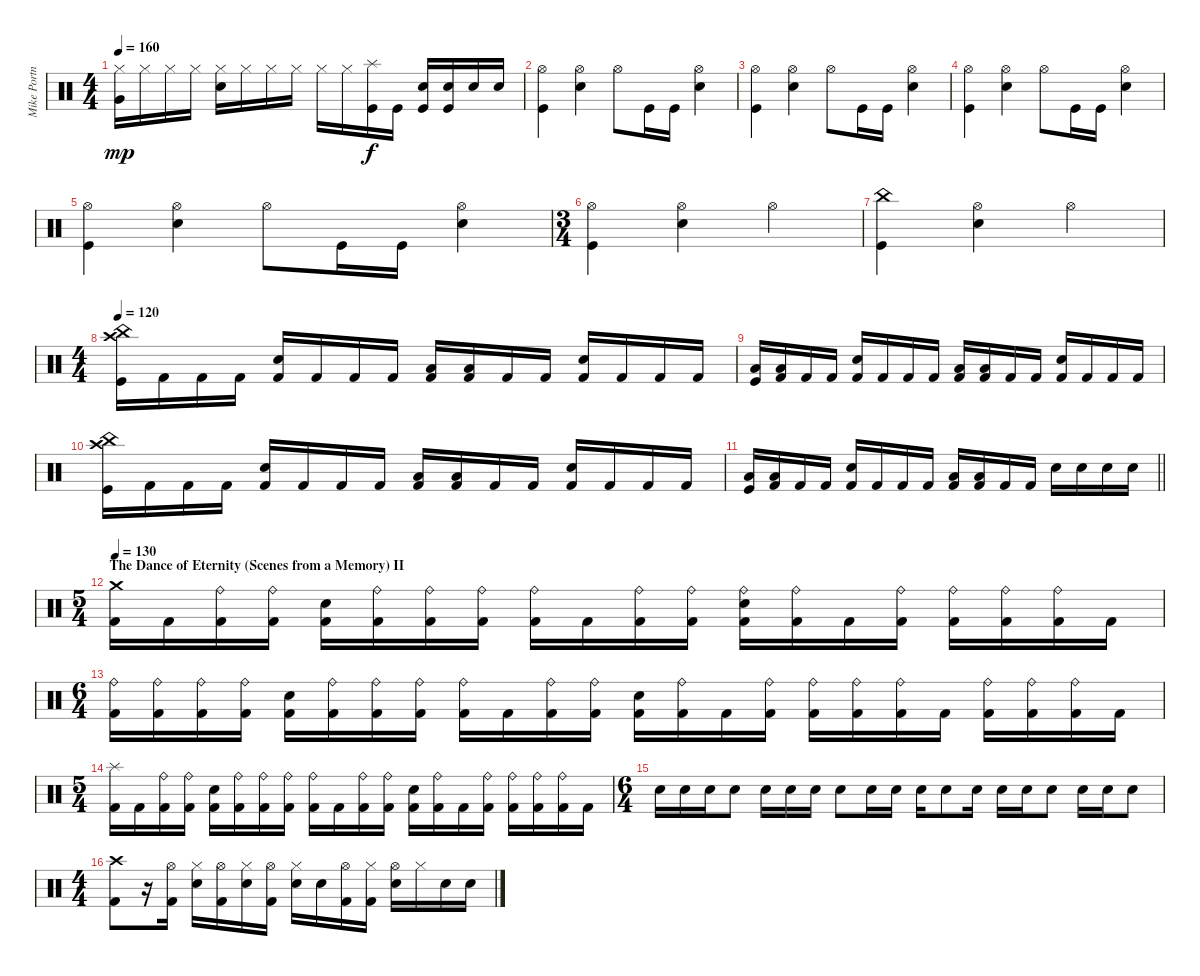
\track ("Mike Portnoy Drums" "Mike Portn") {instrument percussion}
\staff {score}
\articulation defaults
\ts (4 4)
\tempo 160
\clef neutral
\ks c
("Hi-Hat (closed)" "Very Low Tom (hit)").16{dy mp} "Hi-Hat (closed)".16 "Hi-Hat (closed)".16 "Hi-Hat (closed)".16 ("Hi-Hat (closed)" "Snare (hit) 2").16 "Hi-Hat (closed)".16 "Hi-Hat (closed)".16 "Hi-Hat (closed)".16 "Hi-Hat (closed)".16 "Hi-Hat (closed)".16 ("Kick (hit)" "Splash (hit)").16{dy f} "Kick (hit)".16 ("Kick (hit)" "Snare (hit) 2").16 ("Kick (hit)" "Snare (hit) 2").16 "Snare (hit) 2".16 "Snare (hit) 2".16 |
("Kick (hit)" "Hi-Hat (open)").4 ("Snare (hit) 2" "Hi-Hat (open)").4 "Hi-Hat (open)".8 "Kick (hit)".16 "Kick (hit)".16 ("Snare (hit) 2" "Hi-Hat (open)").4 |
("Kick (hit)" "Hi-Hat (open)").4 ("Snare (hit) 2" "Hi-Hat (open)").4 "Hi-Hat (open)".8 "Kick (hit)".16 "Kick (hit)".16 ("Snare (hit) 2" "Hi-Hat (open)").4 |
("Kick (hit)" "Hi-Hat (open)").4 ("Snare (hit) 2" "Hi-Hat (open)").4 "Hi-Hat (open)".8 "Kick (hit)".16 "Kick (hit)".16 ("Snare (hit) 2" "Hi-Hat (open)").4 |
("Kick (hit)" "Hi-Hat (open)").4 ("Snare (hit) 2" "Hi-Hat (open)").4 "Hi-Hat (open)".8 "Kick (hit)".16 "Kick (hit)".16 ("Snare (hit) 2" "Hi-Hat (open)").4 |
\ts (3 4)
("Kick (hit)" "Hi-Hat (open)").4 ("Snare (hit) 2" "Hi-Hat (open)").4 "Hi-Hat (open)".4 |
("Kick (hit)" "China (hit)").4 ("Snare (hit) 2" "Hi-Hat (open)").4 "Hi-Hat (open)".4 |
\ts (4 4)
\tempo 120
("China (hit)" "Crash high (hit)" "Kick (hit)").16 "Kick (hit) 2".16 "Kick (hit) 2".16 "Kick (hit) 2".16 ("Snare (hit) 2" "Kick (hit) 2").16 "Kick (hit) 2".16 "Kick (hit) 2".16 "Kick (hit) 2".16 ("Low Tom (hit)" "Kick (hit) 2").16 ("Low Floor Tom (hit)" "Kick (hit) 2").16 "Kick (hit) 2".16 "Kick (hit) 2".16 ("Snare (hit) 2" "Kick (hit) 2").16 "Kick (hit) 2".16 "Kick (hit) 2".16 "Kick (hit) 2".16 |
("Low Tom (hit)" "Kick (hit)").16 ("Low Floor Tom (hit)" "Kick (hit) 2").16 "Kick (hit) 2".16 "Kick (hit) 2".16 ("Snare (hit) 2" "Kick (hit) 2").16 "Kick (hit) 2".16 "Kick (hit) 2".16 "Kick (hit) 2".16 ("Low Tom (hit)" "Kick (hit) 2").16 ("Low Floor Tom (hit)" "Kick (hit) 2").16 "Kick (hit) 2".16 "Kick (hit) 2".16 ("Snare (hit) 2" "Kick (hit) 2").16 "Kick (hit) 2".16 "Kick (hit) 2".16 "Kick (hit) 2".16 |
("China (hit)" "Crash high (hit)" "Kick (hit)").16 "Kick (hit) 2".16 "Kick (hit) 2".16 "Kick (hit) 2".16 ("Snare (hit) 2" "Kick (hit) 2").16 "Kick (hit) 2".16 "Kick (hit) 2".16 "Kick (hit) 2".16 ("Low Tom (hit)" "Kick (hit) 2").16 ("Low Floor Tom (hit)" "Kick (hit) 2").16 "Kick (hit) 2".16 "Kick (hit) 2".16 ("Snare (hit) 2" "Kick (hit) 2").16 "Kick (hit) 2".16 "Kick (hit) 2".16 "Kick (hit) 2".16 |
\barLineRight lightlight
("Low Tom (hit)" "Kick (hit)").16 ("Low Floor Tom (hit)" "Kick (hit) 2").16 "Kick (hit) 2".16 "Kick (hit) 2".16 ("Snare (hit) 2" "Kick (hit) 2").16 "Kick (hit) 2".16 "Kick (hit) 2".16 "Kick (hit) 2".16 ("Low Tom (hit)" "Kick (hit) 2").16 ("Low Floor Tom (hit)" "Kick (hit) 2").16 "Kick (hit) 2".16 "Kick (hit) 2".16 "Snare (hit) 2".16 "Snare (hit) 2".16 "Snare (hit) 2".16 "Snare (hit) 2".16 |
\ts (5 4)
\section ("" "The Dance of Eternity (Scenes from a Memory) II")
\tempo 130
("Crash medium (hit)" "Kick (hit) 2").16 "Kick (hit) 2".16 ("Ride (bell)" "Kick (hit) 2").16 ("Ride (bell)" "Kick (hit) 2").16 ("Snare (hit) 2" "Kick (hit) 2").16 ("Ride (bell)" "Kick (hit) 2").16 ("Ride (bell)" "Kick (hit) 2").16 ("Ride (bell)" "Kick (hit) 2").16 ("Ride (bell)" "Kick (hit) 2").16 "Kick (hit) 2".16 ("Ride (bell)" "Kick (hit) 2").16 ("Ride (bell)" "Kick (hit) 2").16 ("Ride (bell)" "Snare (hit) 2" "Kick (hit) 2").16 ("Ride (bell)" "Kick (hit) 2").16 "Kick (hit) 2".16 ("Ride (bell)" "Kick (hit) 2").16 ("Ride (bell)" "Kick (hit) 2").16 ("Ride (bell)" "Kick (hit) 2").16 ("Ride (bell)" "Kick (hit) 2").16 "Kick (hit) 2".16 |
\ts (6 4)
("Ride (bell)" "Kick (hit) 2").16 ("Ride (bell)" "Kick (hit) 2").16 ("Ride (bell)" "Kick (hit) 2").16 ("Ride (bell)" "Kick (hit) 2").16 ("Snare (hit) 2" "Kick (hit) 2").16 ("Ride (bell)" "Kick (hit) 2").16 ("Ride (bell)" "Kick (hit) 2").16 ("Ride (bell)" "Kick (hit) 2").16 ("Ride (bell)" "Kick (hit) 2").16 "Kick (hit) 2".16 ("Ride (bell)" "Kick (hit) 2").16 ("Ride (bell)" "Kick (hit) 2").16 ("Snare (hit) 2" "Kick (hit) 2").16 ("Ride (bell)" "Kick (hit) 2").16 "Kick (hit) 2".16 ("Ride (bell)" "Kick (hit) 2").16 ("Ride (bell)" "Kick (hit) 2").16 ("Ride (bell)" "Kick (hit) 2").16 ("Ride (bell)" "Kick (hit) 2").16 "Kick (hit) 2".16 ("Ride (bell)" "Kick (hit) 2").16 ("Ride (bell)" "Kick (hit) 2").16 ("Ride (bell)" "Kick (hit) 2").16 "Kick (hit) 2".16 |
\ts (5 4)
("Splash (hit)" "Kick (hit) 2").16 "Kick (hit) 2".16 ("Ride (bell)" "Kick (hit) 2").16 ("Ride (bell)" "Kick (hit) 2").16 ("Snare (hit) 2" "Kick (hit) 2").16 ("Ride (bell)" "Kick (hit) 2").16 ("Ride (bell)" "Kick (hit) 2").16 ("Ride (bell)" "Kick (hit) 2").16 ("Ride (bell)" "Kick (hit) 2").16 "Kick (hit) 2".16 ("Ride (bell)" "Kick (hit) 2").16 ("Ride (bell)" "Kick (hit) 2").16 ("Snare (hit) 2" "Kick (hit) 2").16 ("Ride (bell)" "Kick (hit) 2").16 "Kick (hit) 2".16 ("Ride (bell)" "Kick (hit) 2").16 ("Ride (bell)" "Kick (hit) 2").16 ("Ride (bell)" "Kick (hit) 2").16 ("Ride (bell)" "Kick (hit) 2").16 "Kick (hit) 2".16 |
\ts (6 4)
"Snare (hit) 2".16 "Snare (hit) 2".16 "Snare (hit) 2".16 "Snare (hit) 2".8 "Snare (hit) 2".16 "Snare (hit) 2".16 "Snare (hit) 2".16 "Snare (hit) 2".8 "Snare (hit) 2".16 "Snare (hit) 2".16 "Snare (hit) 2".16 "Snare (hit) 2".8 "Snare (hit) 2".16 "Snare (hit) 2".16 "Snare (hit) 2".16 "Snare (hit) 2".8 "Snare (hit) 2".16 "Snare (hit) 2".16 "Snare (hit) 2".8 |
\ts (4 4)
("Crash high (hit)" "Kick (hit) 2").8 r.16 ("Hi-Hat (open)" "Kick (hit) 2").16 ("Hi-Hat (closed)" "Snare (hit) 2").16 ("Hi-Hat (open)" "Kick (hit) 2").16 ("Hi-Hat (closed)" "Snare (hit) 2").16 ("Hi-Hat (open)" "Kick (hit) 2").16 ("Hi-Hat (closed)" "Snare (hit) 2").16 "Snare (hit) 2".16 ("Hi-Hat (open)" "Kick (hit) 2").16 ("Hi-Hat (closed)" "Kick (hit) 2").16 ("Hi-Hat (open)" "Snare (hit) 2").16 "Hi-Hat (closed)".16 "Snare (hit) 2".16 "Snare (hit) 2".16
